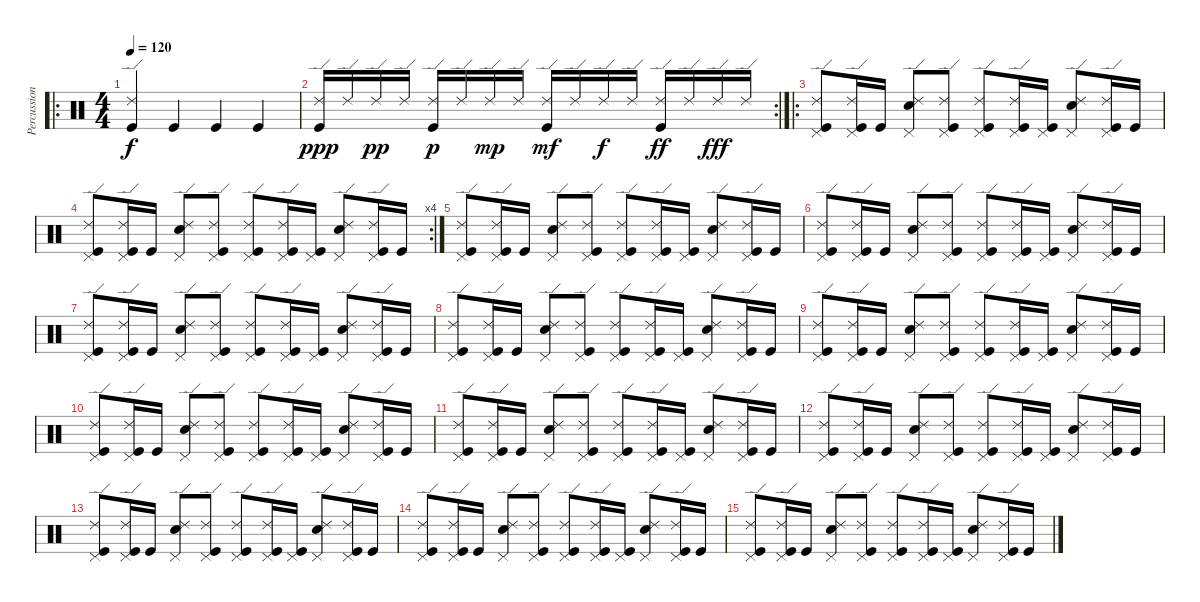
\track ("Percussion" "Percussion") {instrument percussion}
\staff {score}
\articulation defaults
\ro
\ts (4 4)
\tempo 120
\clef neutral
\ks c
("Ride (edge) 2" "Kick (hit)").4{dy f} "Kick (hit)".4 "Kick (hit)".4 "Kick (hit)".4 |
\rc 2
("Ride (edge) 2" "Kick (hit)").16{dy ppp} "Ride (edge) 2".16 "Ride (edge) 2".16{dy pp} "Ride (edge) 2".16 ("Ride (edge) 2" "Kick (hit)").16{dy p} "Ride (edge) 2".16 "Ride (edge) 2".16{dy mp} "Ride (edge) 2".16 ("Ride (edge) 2" "Kick (hit)").16{dy mf} "Ride (edge) 2".16 "Ride (edge) 2".16{dy f} "Ride (edge) 2".16 ("Ride (edge) 2" "Kick (hit)").16{dy ff} "Ride (edge) 2".16 "Ride (edge) 2".16{dy fff} "Ride (edge) 2".16 |
\ro
("Ride (edge) 2" "Kick (hit)" "Pedal Hi-Hat (hit)").8 ("Ride (edge) 2" "Kick (hit)" "Pedal Hi-Hat (hit)").16 "Kick (hit)".16 ("Ride (edge) 2" "Snare (hit) 2" "Pedal Hi-Hat (hit)").8 ("Ride (edge) 2" "Kick (hit)" "Pedal Hi-Hat (hit)").8 ("Ride (edge) 2" "Kick (hit)" "Pedal Hi-Hat (hit)").8 ("Ride (edge) 2" "Kick (hit)" "Pedal Hi-Hat (hit)").16 ("Kick (hit)" "Pedal Hi-Hat (hit)").16 ("Ride (edge) 2" "Snare (hit) 2" "Pedal Hi-Hat (hit)").8 ("Ride (edge) 2" "Kick (hit)" "Pedal Hi-Hat (hit)").16 "Kick (hit)".16 |
\rc 4
("Ride (edge) 2" "Kick (hit)" "Pedal Hi-Hat (hit)").8 ("Ride (edge) 2" "Kick (hit)" "Pedal Hi-Hat (hit)").16 "Kick (hit)".16 ("Ride (edge) 2" "Snare (hit) 2" "Pedal Hi-Hat (hit)").8 ("Ride (edge) 2" "Kick (hit)" "Pedal Hi-Hat (hit)").8 ("Ride (edge) 2" "Kick (hit)" "Pedal Hi-Hat (hit)").8 ("Ride (edge) 2" "Kick (hit)" "Pedal Hi-Hat (hit)").16 ("Kick (hit)" "Pedal Hi-Hat (hit)").16 ("Ride (edge) 2" "Snare (hit) 2" "Pedal Hi-Hat (hit)").8 ("Ride (edge) 2" "Kick (hit)" "Pedal Hi-Hat (hit)").16 "Kick (hit)".16 |
("Ride (edge) 2" "Kick (hit)" "Pedal Hi-Hat (hit)").8 ("Ride (edge) 2" "Kick (hit)" "Pedal Hi-Hat (hit)").16 "Kick (hit)".16 ("Ride (edge) 2" "Snare (hit) 2" "Pedal Hi-Hat (hit)").8 ("Ride (edge) 2" "Kick (hit)" "Pedal Hi-Hat (hit)").8 ("Ride (edge) 2" "Kick (hit)" "Pedal Hi-Hat (hit)").8 ("Ride (edge) 2" "Kick (hit)" "Pedal Hi-Hat (hit)").16 ("Kick (hit)" "Pedal Hi-Hat (hit)").16 ("Ride (edge) 2" "Snare (hit) 2" "Pedal Hi-Hat (hit)").8 ("Ride (edge) 2" "Kick (hit)" "Pedal Hi-Hat (hit)").16 "Kick (hit)".16 |
("Ride (edge) 2" "Kick (hit)" "Pedal Hi-Hat (hit)").8 ("Ride (edge) 2" "Kick (hit)" "Pedal Hi-Hat (hit)").16 "Kick (hit)".16 ("Ride (edge) 2" "Snare (hit) 2" "Pedal Hi-Hat (hit)").8 ("Ride (edge) 2" "Kick (hit)" "Pedal Hi-Hat (hit)").8 ("Ride (edge) 2" "Kick (hit)" "Pedal Hi-Hat (hit)").8 ("Ride (edge) 2" "Kick (hit)" "Pedal Hi-Hat (hit)").16 ("Kick (hit)" "Pedal Hi-Hat (hit)").16 ("Ride (edge) 2" "Snare (hit) 2" "Pedal Hi-Hat (hit)").8 ("Ride (edge) 2" "Kick (hit)" "Pedal Hi-Hat (hit)").16 "Kick (hit)".16 |
("Ride (edge) 2" "Kick (hit)" "Pedal Hi-Hat (hit)").8 ("Ride (edge) 2" "Kick (hit)" "Pedal Hi-Hat (hit)").16 "Kick (hit)".16 ("Ride (edge) 2" "Snare (hit) 2" "Pedal Hi-Hat (hit)").8 ("Ride (edge) 2" "Kick (hit)" "Pedal Hi-Hat (hit)").8 ("Ride (edge) 2" "Kick (hit)" "Pedal Hi-Hat (hit)").8 ("Ride (edge) 2" "Kick (hit)" "Pedal Hi-Hat (hit)").16 ("Kick (hit)" "Pedal Hi-Hat (hit)").16 ("Ride (edge) 2" "Snare (hit) 2" "Pedal Hi-Hat (hit)").8 ("Ride (edge) 2" "Kick (hit)" "Pedal Hi-Hat (hit)").16 "Kick (hit)".16 |
("Ride (edge) 2" "Kick (hit)" "Pedal Hi-Hat (hit)").8 ("Ride (edge) 2" "Kick (hit)" "Pedal Hi-Hat (hit)").16 "Kick (hit)".16 ("Ride (edge) 2" "Snare (hit) 2" "Pedal Hi-Hat (hit)").8 ("Ride (edge) 2" "Kick (hit)" "Pedal Hi-Hat (hit)").8 ("Ride (edge) 2" "Kick (hit)" "Pedal Hi-Hat (hit)").8 ("Ride (edge) 2" "Kick (hit)" "Pedal Hi-Hat (hit)").16 ("Kick (hit)" "Pedal Hi-Hat (hit)").16 ("Ride (edge) 2" "Snare (hit) 2" "Pedal Hi-Hat (hit)").8 ("Ride (edge) 2" "Kick (hit)" "Pedal Hi-Hat (hit)").16 "Kick (hit)".16 |
("Ride (edge) 2" "Kick (hit)" "Pedal Hi-Hat (hit)").8 ("Ride (edge) 2" "Kick (hit)" "Pedal Hi-Hat (hit)").16 "Kick (hit)".16 ("Ride (edge) 2" "Snare (hit) 2" "Pedal Hi-Hat (hit)").8 ("Ride (edge) 2" "Kick (hit)" "Pedal Hi-Hat (hit)").8 ("Ride (edge) 2" "Kick (hit)" "Pedal Hi-Hat (hit)").8 ("Ride (edge) 2" "Kick (hit)" "Pedal Hi-Hat (hit)").16 ("Kick (hit)" "Pedal Hi-Hat (hit)").16 ("Ride (edge) 2" "Snare (hit) 2" "Pedal Hi-Hat (hit)").8 ("Ride (edge) 2" "Kick (hit)" "Pedal Hi-Hat (hit)").16 "Kick (hit)".16 |
("Ride (edge) 2" "Kick (hit)" "Pedal Hi-Hat (hit)").8 ("Ride (edge) 2" "Kick (hit)" "Pedal Hi-Hat (hit)").16 "Kick (hit)".16 ("Ride (edge) 2" "Snare (hit) 2" "Pedal Hi-Hat (hit)").8 ("Ride (edge) 2" "Kick (hit)" "Pedal Hi-Hat (hit)").8 ("Ride (edge) 2" "Kick (hit)" "Pedal Hi-Hat (hit)").8 ("Ride (edge) 2" "Kick (hit)" "Pedal Hi-Hat (hit)").16 ("Kick (hit)" "Pedal Hi-Hat (hit)").16 ("Ride (edge) 2" "Snare (hit) 2" "Pedal Hi-Hat (hit)").8 ("Ride (edge) 2" "Kick (hit)" "Pedal Hi-Hat (hit)").16 "Kick (hit)".16 |
("Ride (edge) 2" "Kick (hit)" "Pedal Hi-Hat (hit)").8 ("Ride (edge) 2" "Kick (hit)" "Pedal Hi-Hat (hit)").16 "Kick (hit)".16 ("Ride (edge) 2" "Snare (hit) 2" "Pedal Hi-Hat (hit)").8 ("Ride (edge) 2" "Kick (hit)" "Pedal Hi-Hat (hit)").8 ("Ride (edge) 2" "Kick (hit)" "Pedal Hi-Hat (hit)").8 ("Ride (edge) 2" "Kick (hit)" "Pedal Hi-Hat (hit)").16 ("Kick (hit)" "Pedal Hi-Hat (hit)").16 ("Ride (edge) 2" "Snare (hit) 2" "Pedal Hi-Hat (hit)").8 ("Ride (edge) 2" "Kick (hit)" "Pedal Hi-Hat (hit)").16 "Kick (hit)".16 |
("Ride (edge) 2" "Kick (hit)" "Pedal Hi-Hat (hit)").8 ("Ride (edge) 2" "Kick (hit)" "Pedal Hi-Hat (hit)").16 "Kick (hit)".16 ("Ride (edge) 2" "Snare (hit) 2" "Pedal Hi-Hat (hit)").8 ("Ride (edge) 2" "Kick (hit)" "Pedal Hi-Hat (hit)").8 ("Ride (edge) 2" "Kick (hit)" "Pedal Hi-Hat (hit)").8 ("Ride (edge) 2" "Kick (hit)" "Pedal Hi-Hat (hit)").16 ("Kick (hit)" "Pedal Hi-Hat (hit)").16 ("Ride (edge) 2" "Snare (hit) 2" "Pedal Hi-Hat (hit)").8 ("Ride (edge) 2" "Kick (hit)" "Pedal Hi-Hat (hit)").16 "Kick (hit)".16 |
("Ride (edge) 2" "Kick (hit)" "Pedal Hi-Hat (hit)").8 ("Ride (edge) 2" "Kick (hit)" "Pedal Hi-Hat (hit)").16 "Kick (hit)".16 ("Ride (edge) 2" "Snare (hit) 2" "Pedal Hi-Hat (hit)").8 ("Ride (edge) 2" "Kick (hit)" "Pedal Hi-Hat (hit)").8 ("Ride (edge) 2" "Kick (hit)" "Pedal Hi-Hat (hit)").8 ("Ride (edge) 2" "Kick (hit)" "Pedal Hi-Hat (hit)").16 ("Kick (hit)" "Pedal Hi-Hat (hit)").16 ("Ride (edge) 2" "Snare (hit) 2" "Pedal Hi-Hat (hit)").8 ("Ride (edge) 2" "Kick (hit)" "Pedal Hi-Hat (hit)").16 "Kick (hit)".16 |
("Ride (edge) 2" "Kick (hit)" "Pedal Hi-Hat (hit)").8 ("Ride (edge) 2" "Kick (hit)" "Pedal Hi-Hat (hit)").16 "Kick (hit)".16 ("Ride (edge) 2" "Snare (hit) 2" "Pedal Hi-Hat (hit)").8 ("Ride (edge) 2" "Kick (hit)" "Pedal Hi-Hat (hit)").8 ("Ride (edge) 2" "Kick (hit)" "Pedal Hi-Hat (hit)").8 ("Ride (edge) 2" "Kick (hit)" "Pedal Hi-Hat (hit)").16 ("Kick (hit)" "Pedal Hi-Hat (hit)").16 ("Ride (edge) 2" "Snare (hit) 2" "Pedal Hi-Hat (hit)").8 ("Ride (edge) 2" "Kick (hit)" "Pedal Hi-Hat (hit)").16 "Kick (hit)".16 |
("Ride (edge) 2" "Kick (hit)" "Pedal Hi-Hat (hit)").8 ("Ride (edge) 2" "Kick (hit)" "Pedal Hi-Hat (hit)").16 "Kick (hit)".16 ("Ride (edge) 2" "Snare (hit) 2" "Pedal Hi-Hat (hit)").8 ("Ride (edge) 2" "Kick (hit)" "Pedal Hi-Hat (hit)").8 ("Ride (edge) 2" "Kick (hit)" "Pedal Hi-Hat (hit)").8 ("Ride (edge) 2" "Kick (hit)" "Pedal Hi-Hat (hit)").16 ("Kick (hit)" "Pedal Hi-Hat (hit)").16 ("Ride (edge) 2" "Snare (hit) 2" "Pedal Hi-Hat (hit)").8 ("Ride (edge) 2" "Kick (hit)" "Pedal Hi-Hat (hit)").16 "Kick (hit)".16
